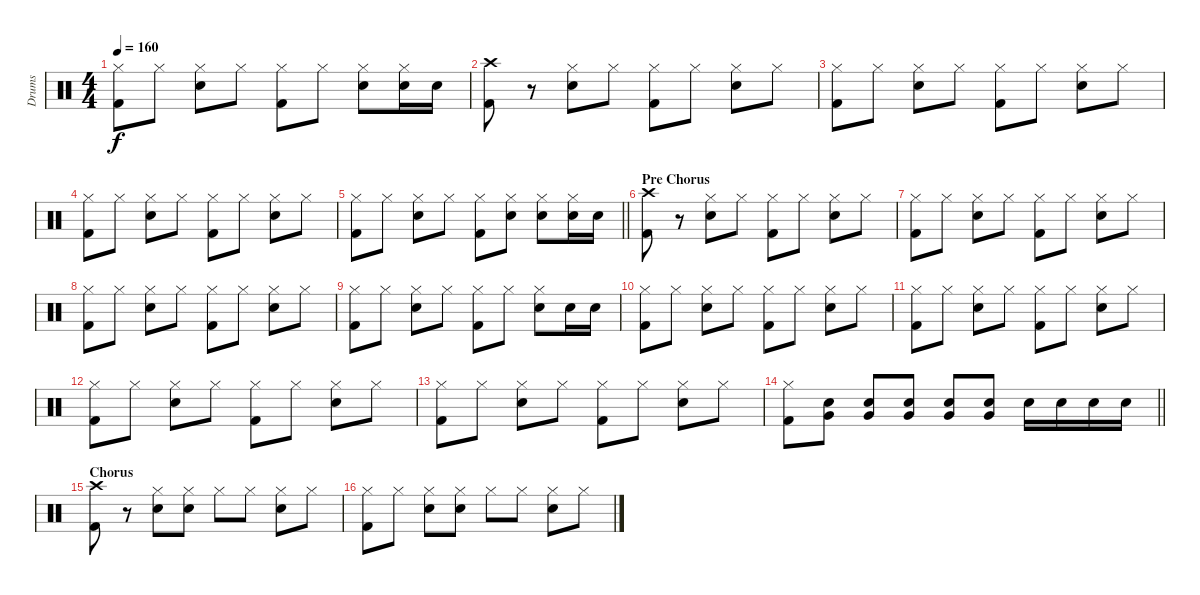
\track ("Drums" "Drums") {instrument percussion}
\staff {score}
\articulation defaults
\ts (4 4)
\tempo 160
\clef neutral
\ks c
("Hi-Hat (closed)" "Kick (hit) 2").8{dy f} "Hi-Hat (closed)".8 ("Hi-Hat (closed)" "Electric Snare (hit)").8 "Hi-Hat (closed)".8 ("Hi-Hat (closed)" "Kick (hit) 2").8 "Hi-Hat (closed)".8 ("Hi-Hat (closed)" "Electric Snare (hit)").8 ("Hi-Hat (closed)" "Electric Snare (hit)").16 "Electric Snare (hit)".16 |
("Crash high (hit)" "Kick (hit) 2").8 r.8 ("Hi-Hat (closed)" "Electric Snare (hit)").8 "Hi-Hat (closed)".8 ("Hi-Hat (closed)" "Kick (hit) 2").8 "Hi-Hat (closed)".8 ("Hi-Hat (closed)" "Electric Snare (hit)").8 "Hi-Hat (closed)".8 |
("Hi-Hat (closed)" "Kick (hit) 2").8 "Hi-Hat (closed)".8 ("Hi-Hat (closed)" "Electric Snare (hit)").8 "Hi-Hat (closed)".8 ("Hi-Hat (closed)" "Kick (hit) 2").8 "Hi-Hat (closed)".8 ("Hi-Hat (closed)" "Electric Snare (hit)").8 "Hi-Hat (closed)".8 |
("Hi-Hat (closed)" "Kick (hit) 2").8 "Hi-Hat (closed)".8 ("Hi-Hat (closed)" "Electric Snare (hit)").8 "Hi-Hat (closed)".8 ("Hi-Hat (closed)" "Kick (hit) 2").8 "Hi-Hat (closed)".8 ("Hi-Hat (closed)" "Electric Snare (hit)").8 "Hi-Hat (closed)".8 |
\barLineRight lightlight
("Hi-Hat (closed)" "Kick (hit) 2").8 "Hi-Hat (closed)".8 ("Hi-Hat (closed)" "Electric Snare (hit)").8 "Hi-Hat (closed)".8 ("Hi-Hat (closed)" "Kick (hit) 2").8 ("Hi-Hat (closed)" "Electric Snare (hit)").8 ("Hi-Hat (closed)" "Electric Snare (hit)").8 ("Hi-Hat (closed)" "Electric Snare (hit)").16 "Electric Snare (hit)".16 |
\section ("" "Pre Chorus")
("Crash high (hit)" "Kick (hit) 2").8 r.8 ("Hi-Hat (closed)" "Electric Snare (hit)").8 "Hi-Hat (closed)".8 ("Hi-Hat (closed)" "Kick (hit) 2").8 "Hi-Hat (closed)".8 ("Hi-Hat (closed)" "Electric Snare (hit)").8 "Hi-Hat (closed)".8 |
("Hi-Hat (closed)" "Kick (hit) 2").8 "Hi-Hat (closed)".8 ("Hi-Hat (closed)" "Electric Snare (hit)").8 "Hi-Hat (closed)".8 ("Hi-Hat (closed)" "Kick (hit) 2").8 "Hi-Hat (closed)".8 ("Hi-Hat (closed)" "Electric Snare (hit)").8 "Hi-Hat (closed)".8 |
("Hi-Hat (closed)" "Kick (hit) 2").8 "Hi-Hat (closed)".8 ("Hi-Hat (closed)" "Electric Snare (hit)").8 "Hi-Hat (closed)".8 ("Hi-Hat (closed)" "Kick (hit) 2").8 "Hi-Hat (closed)".8 ("Hi-Hat (closed)" "Electric Snare (hit)").8 "Hi-Hat (closed)".8 |
("Hi-Hat (closed)" "Kick (hit) 2").8 "Hi-Hat (closed)".8 ("Hi-Hat (closed)" "Electric Snare (hit)").8 "Hi-Hat (closed)".8 ("Hi-Hat (closed)" "Kick (hit) 2").8 "Hi-Hat (closed)".8 ("Hi-Hat (closed)" "Electric Snare (hit)").8 "Electric Snare (hit)".16 "Electric Snare (hit)".16 |
("Hi-Hat (closed)" "Kick (hit) 2").8 "Hi-Hat (closed)".8 ("Hi-Hat (closed)" "Electric Snare (hit)").8 "Hi-Hat (closed)".8 ("Hi-Hat (closed)" "Kick (hit) 2").8 "Hi-Hat (closed)".8 ("Hi-Hat (closed)" "Electric Snare (hit)").8 "Hi-Hat (closed)".8 |
("Hi-Hat (closed)" "Kick (hit) 2").8 "Hi-Hat (closed)".8 ("Hi-Hat (closed)" "Electric Snare (hit)").8 "Hi-Hat (closed)".8 ("Hi-Hat (closed)" "Kick (hit) 2").8 "Hi-Hat (closed)".8 ("Hi-Hat (closed)" "Electric Snare (hit)").8 "Hi-Hat (closed)".8 |
("Hi-Hat (closed)" "Kick (hit) 2").8 "Hi-Hat (closed)".8 ("Hi-Hat (closed)" "Electric Snare (hit)").8 "Hi-Hat (closed)".8 ("Hi-Hat (closed)" "Kick (hit) 2").8 "Hi-Hat (closed)".8 ("Hi-Hat (closed)" "Electric Snare (hit)").8 "Hi-Hat (closed)".8 |
("Hi-Hat (closed)" "Kick (hit) 2").8 "Hi-Hat (closed)".8 ("Hi-Hat (closed)" "Electric Snare (hit)").8 "Hi-Hat (closed)".8 ("Hi-Hat (closed)" "Kick (hit) 2").8 "Hi-Hat (closed)".8 ("Hi-Hat (closed)" "Electric Snare (hit)").8 "Hi-Hat (closed)".8 |
\barLineRight lightlight
("Hi-Hat (closed)" "Kick (hit) 2").8 ("Electric Snare (hit)" "Very Low Tom (hit)").8 ("Electric Snare (hit)" "Very Low Tom (hit)").8 ("Electric Snare (hit)" "Very Low Tom (hit)").8 ("Electric Snare (hit)" "Very Low Tom (hit)").8 ("Electric Snare (hit)" "Very Low Tom (hit)").8 "Electric Snare (hit)".16 "Electric Snare (hit)".16 "Electric Snare (hit)".16 "Electric Snare (hit)".16 |
\section ("" "Chorus")
("Crash high (hit)" "Kick (hit) 2").8 r.8 ("Hi-Hat (closed)" "Electric Snare (hit)").8 ("Hi-Hat (closed)" "Electric Snare (hit)").8 "Hi-Hat (closed)".8 "Hi-Hat (closed)".8 ("Hi-Hat (closed)" "Electric Snare (hit)").8 "Hi-Hat (closed)".8 |
("Hi-Hat (closed)" "Kick (hit) 2").8 "Hi-Hat (closed)".8 ("Hi-Hat (closed)" "Electric Snare (hit)").8 ("Hi-Hat (closed)" "Electric Snare (hit)").8 "Hi-Hat (closed)".8 "Hi-Hat (closed)".8 ("Hi-Hat (closed)" "Electric Snare (hit)").8 "Hi-Hat (closed)".8
